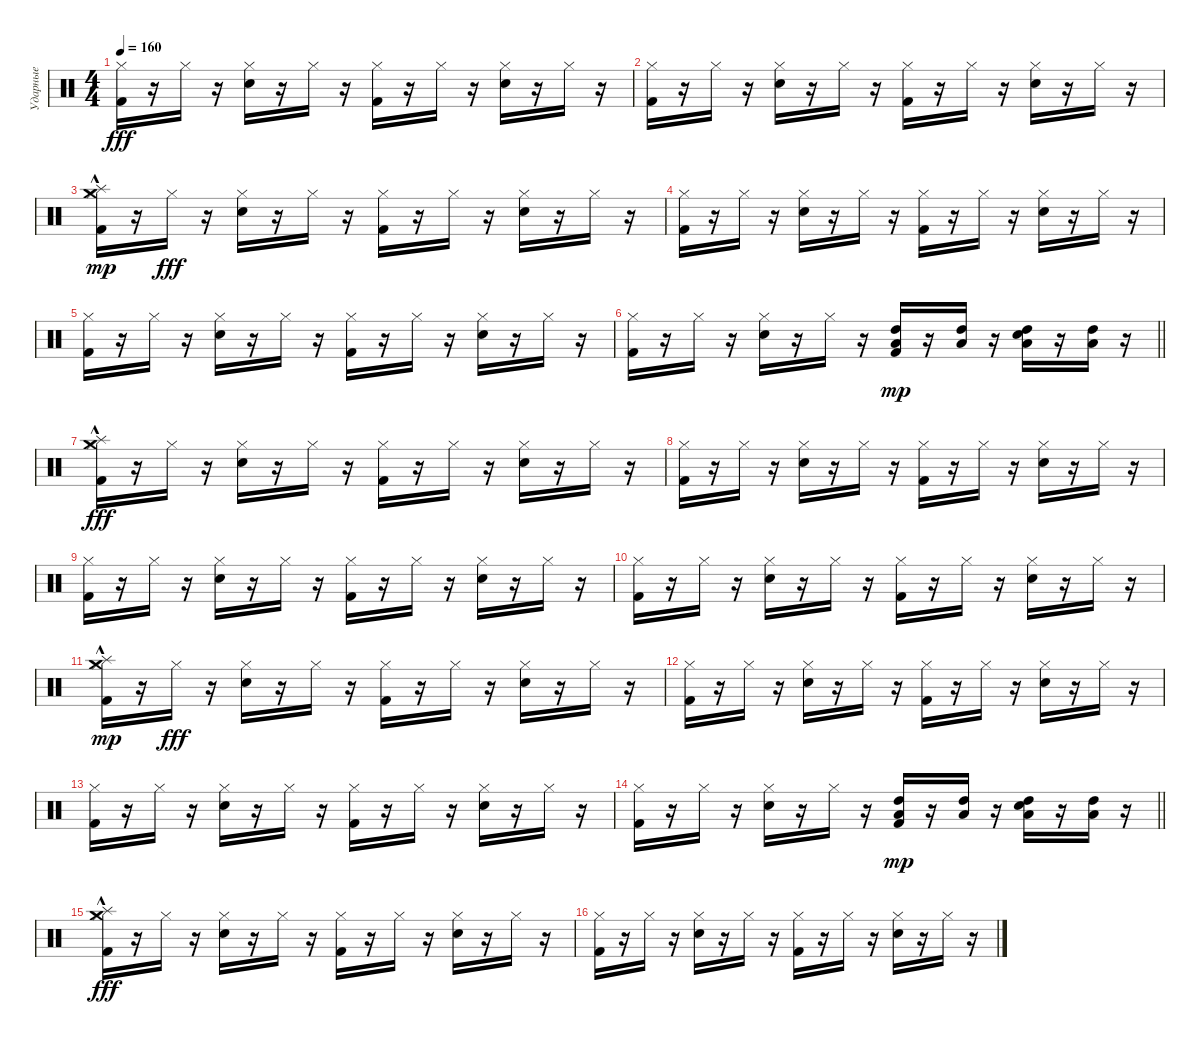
\track ("Ударные" "Ударные") {instrument percussion}
\staff {score}
\articulation defaults
\ts (4 4)
\tempo 160
\clef neutral
\ks c
("Hi-Hat (closed)" "Kick (hit) 2").16{dy fff} r.16 "Hi-Hat (closed)".16 r.16 ("Hi-Hat (closed)" "Electric Snare (hit)").16 r.16 "Hi-Hat (closed)".16 r.16 ("Hi-Hat (closed)" "Kick (hit) 2").16 r.16 "Hi-Hat (closed)".16 r.16 ("Hi-Hat (closed)" "Electric Snare (hit)").16 r.16 "Hi-Hat (closed)".16 r.16 |
("Hi-Hat (closed)" "Kick (hit) 2").16 r.16 "Hi-Hat (closed)".16 r.16 ("Hi-Hat (closed)" "Electric Snare (hit)").16 r.16 "Hi-Hat (closed)".16 r.16 ("Hi-Hat (closed)" "Kick (hit) 2").16 r.16 "Hi-Hat (closed)".16 r.16 ("Hi-Hat (closed)" "Electric Snare (hit)").16 r.16 "Hi-Hat (closed)".16 r.16 |
("Hi-Hat (closed)" "Kick (hit) 2" "Crash medium (hit)"{hac} "Splash (hit)").16{dy mp} r.16 "Hi-Hat (closed)".16{dy fff} r.16 ("Hi-Hat (closed)" "Electric Snare (hit)").16 r.16 "Hi-Hat (closed)".16 r.16 ("Hi-Hat (closed)" "Kick (hit) 2").16 r.16 "Hi-Hat (closed)".16 r.16 ("Hi-Hat (closed)" "Electric Snare (hit)").16 r.16 "Hi-Hat (closed)".16 r.16 |
("Hi-Hat (closed)" "Kick (hit) 2").16 r.16 "Hi-Hat (closed)".16 r.16 ("Hi-Hat (closed)" "Electric Snare (hit)").16 r.16 "Hi-Hat (closed)".16 r.16 ("Hi-Hat (closed)" "Kick (hit) 2").16 r.16 "Hi-Hat (closed)".16 r.16 ("Hi-Hat (closed)" "Electric Snare (hit)").16 r.16 "Hi-Hat (closed)".16 r.16 |
("Hi-Hat (closed)" "Kick (hit) 2").16 r.16 "Hi-Hat (closed)".16 r.16 ("Hi-Hat (closed)" "Electric Snare (hit)").16 r.16 "Hi-Hat (closed)".16 r.16 ("Hi-Hat (closed)" "Kick (hit) 2").16 r.16 "Hi-Hat (closed)".16 r.16 ("Hi-Hat (closed)" "Electric Snare (hit)").16 r.16 "Hi-Hat (closed)".16 r.16 |
\barLineRight lightlight
("Hi-Hat (closed)" "Kick (hit) 2").16 r.16 "Hi-Hat (closed)".16 r.16 ("Hi-Hat (closed)" "Electric Snare (hit)").16 r.16 "Hi-Hat (closed)".16 r.16 ("Kick (hit) 2" "High Tom (hit)" "Low Tom (hit)").16{dy mp} r.16 ("High Tom (hit)" "Low Tom (hit)").16 r.16 ("Electric Snare (hit)" "High Tom (hit)" "Low Tom (hit)").16 r.16 ("High Tom (hit)" "Low Tom (hit)").16 r.16 |
("Hi-Hat (closed)" "Kick (hit) 2" "Crash medium (hit)"{hac} "Splash (hit)").16{dy fff} r.16 "Hi-Hat (closed)".16 r.16 ("Hi-Hat (closed)" "Electric Snare (hit)").16 r.16 "Hi-Hat (closed)".16 r.16 ("Hi-Hat (closed)" "Kick (hit) 2").16 r.16 "Hi-Hat (closed)".16 r.16 ("Hi-Hat (closed)" "Electric Snare (hit)").16 r.16 "Hi-Hat (closed)".16 r.16 |
("Hi-Hat (closed)" "Kick (hit) 2").16 r.16 "Hi-Hat (closed)".16 r.16 ("Hi-Hat (closed)" "Electric Snare (hit)").16 r.16 "Hi-Hat (closed)".16 r.16 ("Hi-Hat (closed)" "Kick (hit) 2").16 r.16 "Hi-Hat (closed)".16 r.16 ("Hi-Hat (closed)" "Electric Snare (hit)").16 r.16 "Hi-Hat (closed)".16 r.16 |
("Hi-Hat (closed)" "Kick (hit) 2").16 r.16 "Hi-Hat (closed)".16 r.16 ("Hi-Hat (closed)" "Electric Snare (hit)").16 r.16 "Hi-Hat (closed)".16 r.16 ("Hi-Hat (closed)" "Kick (hit) 2").16 r.16 "Hi-Hat (closed)".16 r.16 ("Hi-Hat (closed)" "Electric Snare (hit)").16 r.16 "Hi-Hat (closed)".16 r.16 |
("Hi-Hat (closed)" "Kick (hit) 2").16 r.16 "Hi-Hat (closed)".16 r.16 ("Hi-Hat (closed)" "Electric Snare (hit)").16 r.16 "Hi-Hat (closed)".16 r.16 ("Hi-Hat (closed)" "Kick (hit) 2").16 r.16 "Hi-Hat (closed)".16 r.16 ("Hi-Hat (closed)" "Electric Snare (hit)").16 r.16 "Hi-Hat (closed)".16 r.16 |
("Hi-Hat (closed)" "Kick (hit) 2" "Crash medium (hit)"{hac} "Splash (hit)").16{dy mp} r.16 "Hi-Hat (closed)".16{dy fff} r.16 ("Hi-Hat (closed)" "Electric Snare (hit)").16 r.16 "Hi-Hat (closed)".16 r.16 ("Hi-Hat (closed)" "Kick (hit) 2").16 r.16 "Hi-Hat (closed)".16 r.16 ("Hi-Hat (closed)" "Electric Snare (hit)").16 r.16 "Hi-Hat (closed)".16 r.16 |
("Hi-Hat (closed)" "Kick (hit) 2").16 r.16 "Hi-Hat (closed)".16 r.16 ("Hi-Hat (closed)" "Electric Snare (hit)").16 r.16 "Hi-Hat (closed)".16 r.16 ("Hi-Hat (closed)" "Kick (hit) 2").16 r.16 "Hi-Hat (closed)".16 r.16 ("Hi-Hat (closed)" "Electric Snare (hit)").16 r.16 "Hi-Hat (closed)".16 r.16 |
("Hi-Hat (closed)" "Kick (hit) 2").16 r.16 "Hi-Hat (closed)".16 r.16 ("Hi-Hat (closed)" "Electric Snare (hit)").16 r.16 "Hi-Hat (closed)".16 r.16 ("Hi-Hat (closed)" "Kick (hit) 2").16 r.16 "Hi-Hat (closed)".16 r.16 ("Hi-Hat (closed)" "Electric Snare (hit)").16 r.16 "Hi-Hat (closed)".16 r.16 |
\barLineRight lightlight
("Hi-Hat (closed)" "Kick (hit) 2").16 r.16 "Hi-Hat (closed)".16 r.16 ("Hi-Hat (closed)" "Electric Snare (hit)").16 r.16 "Hi-Hat (closed)".16 r.16 ("Kick (hit) 2" "High Tom (hit)" "Low Tom (hit)").16{dy mp} r.16 ("High Tom (hit)" "Low Tom (hit)").16 r.16 ("Electric Snare (hit)" "High Tom (hit)" "Low Tom (hit)").16 r.16 ("High Tom (hit)" "Low Tom (hit)").16 r.16 |
("Crash medium (hit)"{hac} "Splash (hit)" "Hi-Hat (closed)" "Kick (hit) 2").16{dy fff} r.16 "Hi-Hat (closed)".16 r.16 ("Hi-Hat (closed)" "Electric Snare (hit)").16 r.16 "Hi-Hat (closed)".16 r.16 ("Hi-Hat (closed)" "Kick (hit) 2").16 r.16 "Hi-Hat (closed)".16 r.16 ("Hi-Hat (closed)" "Electric Snare (hit)").16 r.16 "Hi-Hat (closed)".16 r.16 |
("Hi-Hat (closed)" "Kick (hit) 2").16 r.16 "Hi-Hat (closed)".16 r.16 ("Hi-Hat (closed)" "Electric Snare (hit)").16 r.16 "Hi-Hat (closed)".16 r.16 ("Hi-Hat (closed)" "Kick (hit) 2").16 r.16 "Hi-Hat (closed)".16 r.16 ("Hi-Hat (closed)" "Electric Snare (hit)").16 r.16 "Hi-Hat (closed)".16 r.16
